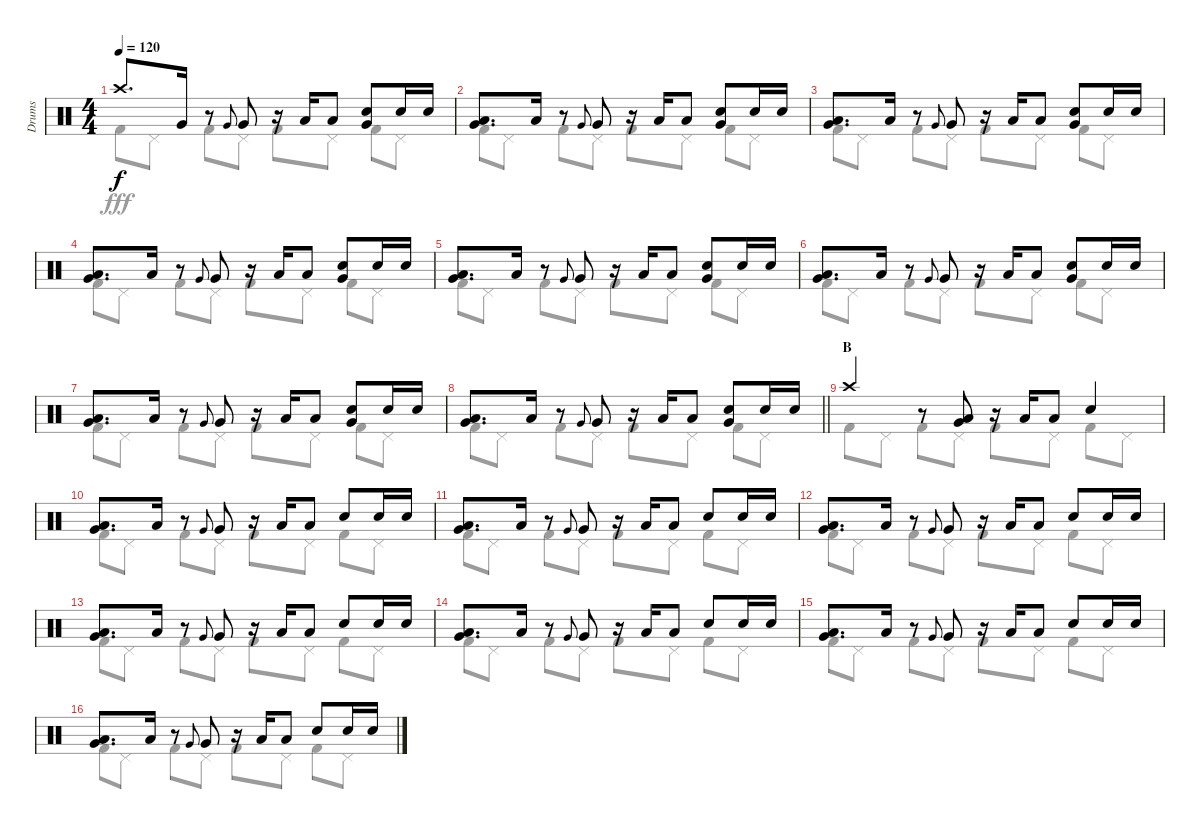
\track ("Drums" "Drums") {instrument percussion}
\staff {score}
\articulation defaults
\voice
\ts (4 4)
\tempo 120
\clef neutral
\ks c "Crash high (hit)".8{d dy f} "Very Low Tom (hit)".16
r.8 "Very Low Tom (hit)".8{gr onbeat} "Very Low Tom (hit)".8 r.16 "Low Tom (hit)".16 "Low Tom (hit)".8 ("Snare (hit) 2" "Very Low Tom (hit)").8 "Snare (hit) 2".16 "Snare (hit) 2".16 |
("Low Tom (hit)" "Very Low Tom (hit)").8{d} "Low Tom (hit)".16 r.8 "Very Low Tom (hit)".8{gr onbeat} "Very Low Tom (hit)".8 r.16 "Low Tom (hit)".16 "Low Tom (hit)".8 ("Snare (hit) 2" "Very Low Tom (hit)").8 "Snare (hit) 2".16 "Snare (hit) 2".16 |
("Low Tom (hit)" "Very Low Tom (hit)").8{d} "Low Tom (hit)".16 r.8 "Very Low Tom (hit)".8{gr onbeat} "Very Low Tom (hit)".8 r.16 "Low Tom (hit)".16 "Low Tom (hit)".8 ("Snare (hit) 2" "Very Low Tom (hit)").8 "Snare (hit) 2".16 "Snare (hit) 2".16 |
("Low Tom (hit)" "Very Low Tom (hit)").8{d} "Low Tom (hit)".16 r.8 "Very Low Tom (hit)".8{gr onbeat} "Very Low Tom (hit)".8 r.16 "Low Tom (hit)".16 "Low Tom (hit)".8 ("Snare (hit) 2" "Very Low Tom (hit)").8 "Snare (hit) 2".16 "Snare (hit) 2".16 |
("Low Tom (hit)" "Very Low Tom (hit)").8{d} "Low Tom (hit)".16 r.8 "Very Low Tom (hit)".8{gr onbeat} "Very Low Tom (hit)".8 r.16 "Low Tom (hit)".16 "Low Tom (hit)".8 ("Snare (hit) 2" "Very Low Tom (hit)").8 "Snare (hit) 2".16 "Snare (hit) 2".16 |
("Low Tom (hit)" "Very Low Tom (hit)").8{d} "Low Tom (hit)".16 r.8 "Very Low Tom (hit)".8{gr onbeat} "Very Low Tom (hit)".8 r.16 "Low Tom (hit)".16 "Low Tom (hit)".8 ("Snare (hit) 2" "Very Low Tom (hit)").8 "Snare (hit) 2".16 "Snare (hit) 2".16 |
("Low Tom (hit)" "Very Low Tom (hit)").8{d} "Low Tom (hit)".16 r.8 "Very Low Tom (hit)".8{gr onbeat} "Very Low Tom (hit)".8 r.16 "Low Tom (hit)".16 "Low Tom (hit)".8 ("Snare (hit) 2" "Very Low Tom (hit)").8 "Snare (hit) 2".16 "Snare (hit) 2".16 |
\barLineRight lightlight
("Low Tom (hit)" "Very Low Tom (hit)").8{d} "Low Tom (hit)".16 r.8 "Very Low Tom (hit)".8{gr onbeat} "Very Low Tom (hit)".8 r.16 "Low Tom (hit)".16 "Low Tom (hit)".8 ("Snare (hit) 2" "Very Low Tom (hit)").8 "Snare (hit) 2".16 "Snare (hit) 2".16 |
\section ("" "B")
"Crash high (hit)".4 r.8 ("Low Tom (hit)" "Very Low Tom (hit)").8 r.16 "Low Tom (hit)".16 "Low Tom (hit)".8 "Snare (hit) 2".4 |
("Low Tom (hit)" "Very Low Tom (hit)").8{d} "Low Tom (hit)".16 r.8 "Very Low Tom (hit)".8{gr onbeat} "Very Low Tom (hit)".8 r.16 "Low Tom (hit)".16 "Low Tom (hit)".8 "Snare (hit) 2".8 "Snare (hit) 2".16 "Snare (hit) 2".16 |
("Low Tom (hit)" "Very Low Tom (hit)").8{d} "Low Tom (hit)".16 r.8 "Very Low Tom (hit)".8{gr onbeat} "Very Low Tom (hit)".8 r.16 "Low Tom (hit)".16 "Low Tom (hit)".8 "Snare (hit) 2".8 "Snare (hit) 2".16 "Snare (hit) 2".16 |
("Low Tom (hit)" "Very Low Tom (hit)").8{d} "Low Tom (hit)".16 r.8 "Very Low Tom (hit)".8{gr onbeat} "Very Low Tom (hit)".8 r.16 "Low Tom (hit)".16 "Low Tom (hit)".8 "Snare (hit) 2".8 "Snare (hit) 2".16 "Snare (hit) 2".16 |
("Low Tom (hit)" "Very Low Tom (hit)").8{d} "Low Tom (hit)".16 r.8 "Very Low Tom (hit)".8{gr onbeat} "Very Low Tom (hit)".8 r.16 "Low Tom (hit)".16 "Low Tom (hit)".8 "Snare (hit) 2".8 "Snare (hit) 2".16 "Snare (hit) 2".16 |
("Low Tom (hit)" "Very Low Tom (hit)").8{d} "Low Tom (hit)".16 r.8 "Very Low Tom (hit)".8{gr onbeat} "Very Low Tom (hit)".8 r.16 "Low Tom (hit)".16 "Low Tom (hit)".8 "Snare (hit) 2".8 "Snare (hit) 2".16 "Snare (hit) 2".16 |
("Low Tom (hit)" "Very Low Tom (hit)").8{d} "Low Tom (hit)".16 r.8 "Very Low Tom (hit)".8{gr onbeat} "Very Low Tom (hit)".8 r.16 "Low Tom (hit)".16 "Low Tom (hit)".8 "Snare (hit) 2".8 "Snare (hit) 2".16 "Snare (hit) 2".16 |
("Low Tom (hit)" "Very Low Tom (hit)").8{d} "Low Tom (hit)".16 r.8 "Very Low Tom (hit)".8{gr onbeat} "Very Low Tom (hit)".8 r.16 "Low Tom (hit)".16 "Low Tom (hit)".8 "Snare (hit) 2".8 "Snare (hit) 2".16 "Snare (hit) 2".16
\voice
\clef neutral
\ottava regular
\simile none
\ks c "Kick (hit) 2".8{dy fff} "Pedal Hi-Hat (hit)".8 "Kick (hit) 2".8 "Pedal Hi-Hat (hit)".8 "Kick (hit) 2".8 "Pedal Hi-Hat (hit)".8 "Kick (hit) 2".8 "Pedal Hi-Hat (hit)".8
|
"Kick (hit) 2".8 "Pedal Hi-Hat (hit)".8 "Kick (hit) 2".8 "Pedal Hi-Hat (hit)".8 "Kick (hit) 2".8 "Pedal Hi-Hat (hit)".8 "Kick (hit) 2".8 "Pedal Hi-Hat (hit)".8 |
"Kick (hit) 2".8 "Pedal Hi-Hat (hit)".8 "Kick (hit) 2".8 "Pedal Hi-Hat (hit)".8 "Kick (hit) 2".8 "Pedal Hi-Hat (hit)".8 "Kick (hit) 2".8 "Pedal Hi-Hat (hit)".8 |
"Kick (hit) 2".8 "Pedal Hi-Hat (hit)".8 "Kick (hit) 2".8 "Pedal Hi-Hat (hit)".8 "Kick (hit) 2".8 "Pedal Hi-Hat (hit)".8 "Kick (hit) 2".8 "Pedal Hi-Hat (hit)".8 |
"Kick (hit) 2".8 "Pedal Hi-Hat (hit)".8 "Kick (hit) 2".8 "Pedal Hi-Hat (hit)".8 "Kick (hit) 2".8 "Pedal Hi-Hat (hit)".8 "Kick (hit) 2".8 "Pedal Hi-Hat (hit)".8 |
"Kick (hit) 2".8 "Pedal Hi-Hat (hit)".8 "Kick (hit) 2".8 "Pedal Hi-Hat (hit)".8 "Kick (hit) 2".8 "Pedal Hi-Hat (hit)".8 "Kick (hit) 2".8 "Pedal Hi-Hat (hit)".8 |
"Kick (hit) 2".8 "Pedal Hi-Hat (hit)".8 "Kick (hit) 2".8 "Pedal Hi-Hat (hit)".8 "Kick (hit) 2".8 "Pedal Hi-Hat (hit)".8 "Kick (hit) 2".8 "Pedal Hi-Hat (hit)".8 |
\barLineRight lightlight "Kick (hit) 2".8 "Pedal Hi-Hat (hit)".8 "Kick (hit) 2".8 "Pedal Hi-Hat (hit)".8 "Kick (hit) 2".8 "Pedal Hi-Hat (hit)".8 "Kick (hit) 2".8 "Pedal Hi-Hat (hit)".8
|
"Kick (hit) 2".8 "Pedal Hi-Hat (hit)".8 "Kick (hit) 2".8 "Pedal Hi-Hat (hit)".8 "Kick (hit) 2".8 "Pedal Hi-Hat (hit)".8 "Kick (hit) 2".8 "Pedal Hi-Hat (hit)".8 |
"Kick (hit) 2".8 "Pedal Hi-Hat (hit)".8 "Kick (hit) 2".8 "Pedal Hi-Hat (hit)".8 "Kick (hit) 2".8 "Pedal Hi-Hat (hit)".8 "Kick (hit) 2".8 "Pedal Hi-Hat (hit)".8 |
"Kick (hit) 2".8 "Pedal Hi-Hat (hit)".8 "Kick (hit) 2".8 "Pedal Hi-Hat (hit)".8 "Kick (hit) 2".8 "Pedal Hi-Hat (hit)".8 "Kick (hit) 2".8 "Pedal Hi-Hat (hit)".8 |
"Kick (hit) 2".8 "Pedal Hi-Hat (hit)".8 "Kick (hit) 2".8 "Pedal Hi-Hat (hit)".8 "Kick (hit) 2".8 "Pedal Hi-Hat (hit)".8 "Kick (hit) 2".8 "Pedal Hi-Hat (hit)".8 |
"Kick (hit) 2".8 "Pedal Hi-Hat (hit)".8 "Kick (hit) 2".8 "Pedal Hi-Hat (hit)".8 "Kick (hit) 2".8 "Pedal Hi-Hat (hit)".8 "Kick (hit) 2".8 "Pedal Hi-Hat (hit)".8 |
"Kick (hit) 2".8 "Pedal Hi-Hat (hit)".8 "Kick (hit) 2".8 "Pedal Hi-Hat (hit)".8 "Kick (hit) 2".8 "Pedal Hi-Hat (hit)".8 "Kick (hit) 2".8 "Pedal Hi-Hat (hit)".8 |
"Kick (hit) 2".8 "Pedal Hi-Hat (hit)".8 "Kick (hit) 2".8 "Pedal Hi-Hat (hit)".8 "Kick (hit) 2".8 "Pedal Hi-Hat (hit)".8 "Kick (hit) 2".8 "Pedal Hi-Hat (hit)".8 |
"Kick (hit) 2".8 "Pedal Hi-Hat (hit)".8 "Kick (hit) 2".8 "Pedal Hi-Hat (hit)".8 "Kick (hit) 2".8 "Pedal Hi-Hat (hit)".8 "Kick (hit) 2".8 "Pedal Hi-Hat (hit)".8
